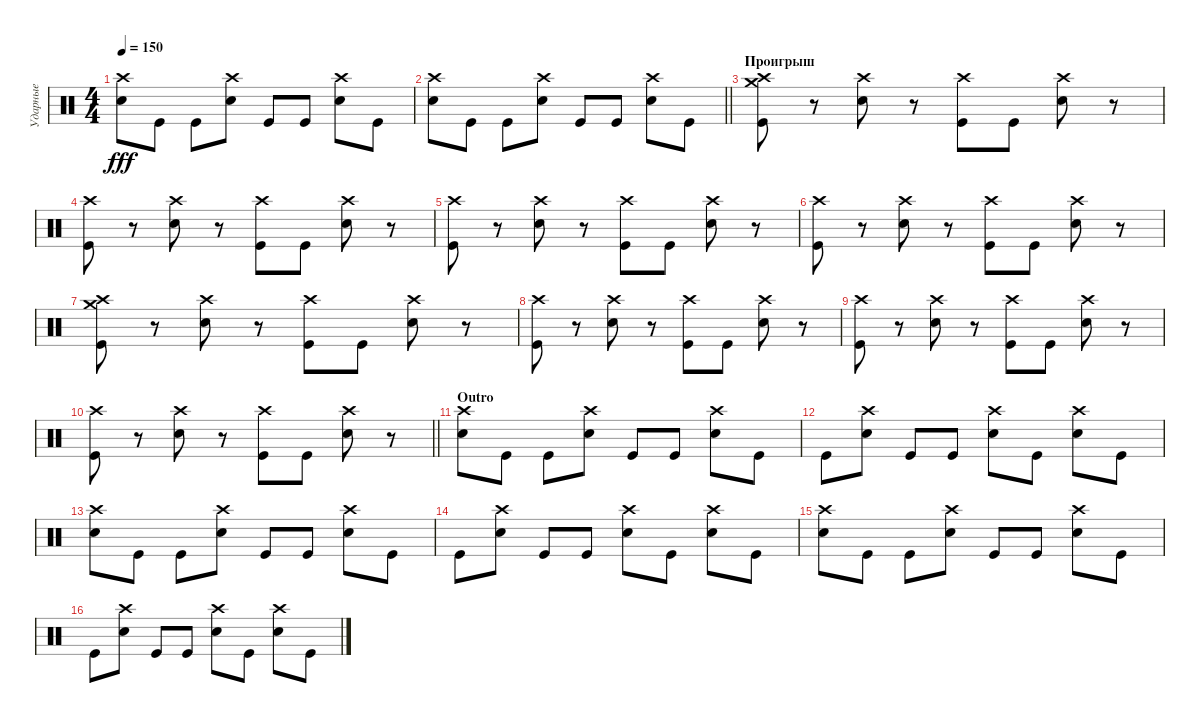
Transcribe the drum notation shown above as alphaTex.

\track ("Ударные" "Ударные") {instrument percussion}
\staff {score}
\articulation defaults
\ts (4 4)
\tempo 150
\clef neutral
\ks c
("Electric Snare (hit)" "Crash high (hit)").8{dy fff} "Kick (hit)".8 "Kick (hit)".8 ("Electric Snare (hit)" "Crash high (hit)").8 "Kick (hit)".8 "Kick (hit)".8 ("Electric Snare (hit)" "Crash high (hit)").8 "Kick (hit)".8 |
\barLineRight lightlight
("Electric Snare (hit)" "Crash high (hit)").8 "Kick (hit)".8 "Kick (hit)".8 ("Electric Snare (hit)" "Crash high (hit)").8 "Kick (hit)".8 "Kick (hit)".8 ("Electric Snare (hit)" "Crash high (hit)").8 "Kick (hit)".8 |
\section ("" "Проигрыш")
("Crash medium (hit)" "Crash high (hit)" "Kick (hit)").8 r.8 ("Crash high (hit)" "Electric Snare (hit)").8 r.8 ("Crash high (hit)" "Kick (hit)").8 "Kick (hit)".8 ("Crash high (hit)" "Electric Snare (hit)").8 r.8 |
("Crash high (hit)" "Kick (hit)").8 r.8 ("Crash high (hit)" "Electric Snare (hit)").8 r.8 ("Crash high (hit)" "Kick (hit)").8 "Kick (hit)".8 ("Crash high (hit)" "Electric Snare (hit)").8 r.8 |
("Crash high (hit)" "Kick (hit)").8 r.8 ("Crash high (hit)" "Electric Snare (hit)").8 r.8 ("Crash high (hit)" "Kick (hit)").8 "Kick (hit)".8 ("Crash high (hit)" "Electric Snare (hit)").8 r.8 |
("Crash high (hit)" "Kick (hit)").8 r.8 ("Crash high (hit)" "Electric Snare (hit)").8 r.8 ("Crash high (hit)" "Kick (hit)").8 "Kick (hit)".8 ("Crash high (hit)" "Electric Snare (hit)").8 r.8 |
("Crash medium (hit)" "Crash high (hit)" "Kick (hit)").8 r.8 ("Crash high (hit)" "Electric Snare (hit)").8 r.8 ("Crash high (hit)" "Kick (hit)").8 "Kick (hit)".8 ("Crash high (hit)" "Electric Snare (hit)").8 r.8 |
("Crash high (hit)" "Kick (hit)").8 r.8 ("Crash high (hit)" "Electric Snare (hit)").8 r.8 ("Crash high (hit)" "Kick (hit)").8 "Kick (hit)".8 ("Crash high (hit)" "Electric Snare (hit)").8 r.8 |
("Crash high (hit)" "Kick (hit)").8 r.8 ("Crash high (hit)" "Electric Snare (hit)").8 r.8 ("Crash high (hit)" "Kick (hit)").8 "Kick (hit)".8 ("Crash high (hit)" "Electric Snare (hit)").8 r.8 |
\barLineRight lightlight
("Crash high (hit)" "Kick (hit)").8 r.8 ("Crash high (hit)" "Electric Snare (hit)").8 r.8 ("Crash high (hit)" "Kick (hit)").8 "Kick (hit)".8 ("Crash high (hit)" "Electric Snare (hit)").8 r.8 |
\section ("" "Outro")
("Crash high (hit)" "Electric Snare (hit)").8 "Kick (hit)".8 "Kick (hit)".8 ("Crash high (hit)" "Electric Snare (hit)").8 "Kick (hit)".8 "Kick (hit)".8 ("Crash high (hit)" "Electric Snare (hit)").8 "Kick (hit)".8 |
"Kick (hit)".8 ("Crash high (hit)" "Electric Snare (hit)").8 "Kick (hit)".8 "Kick (hit)".8 ("Crash high (hit)" "Electric Snare (hit)").8 "Kick (hit)".8 ("Crash high (hit)" "Electric Snare (hit)").8 "Kick (hit)".8 |
("Crash high (hit)" "Electric Snare (hit)").8 "Kick (hit)".8 "Kick (hit)".8 ("Crash high (hit)" "Electric Snare (hit)").8 "Kick (hit)".8 "Kick (hit)".8 ("Crash high (hit)" "Electric Snare (hit)").8 "Kick (hit)".8 |
"Kick (hit)".8 ("Crash high (hit)" "Electric Snare (hit)").8 "Kick (hit)".8 "Kick (hit)".8 ("Crash high (hit)" "Electric Snare (hit)").8 "Kick (hit)".8 ("Crash high (hit)" "Electric Snare (hit)").8 "Kick (hit)".8 |
("Crash high (hit)" "Electric Snare (hit)").8 "Kick (hit)".8 "Kick (hit)".8 ("Crash high (hit)" "Electric Snare (hit)").8 "Kick (hit)".8 "Kick (hit)".8 ("Crash high (hit)" "Electric Snare (hit)").8 "Kick (hit)".8 |
"Kick (hit)".8 ("Crash high (hit)" "Electric Snare (hit)").8 "Kick (hit)".8 "Kick (hit)".8 ("Crash high (hit)" "Electric Snare (hit)").8 "Kick (hit)".8 ("Crash high (hit)" "Electric Snare (hit)").8 "Kick (hit)".8
